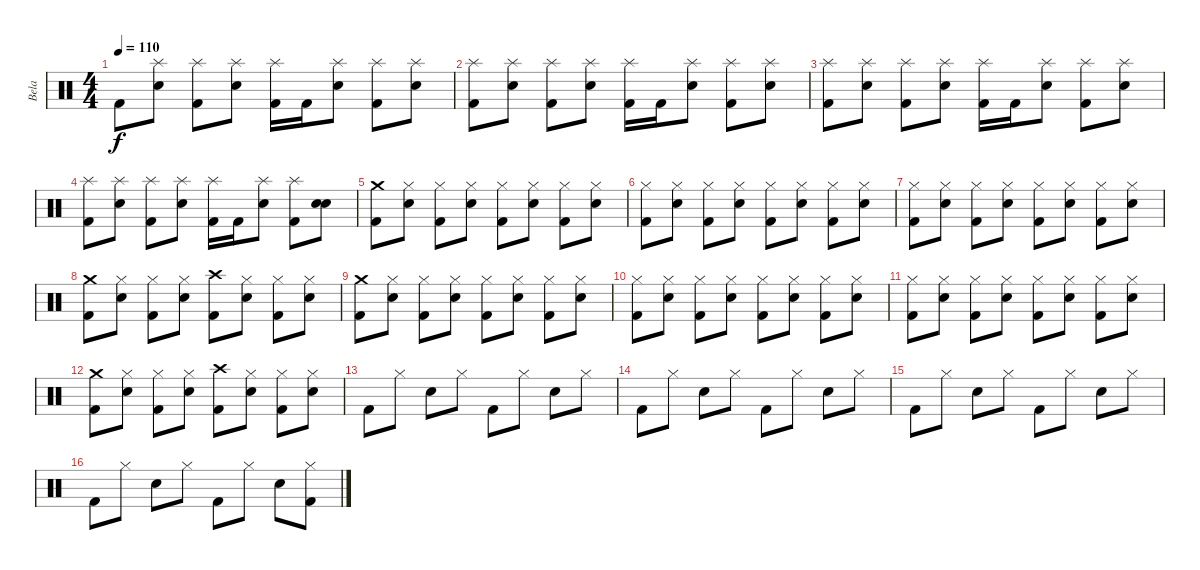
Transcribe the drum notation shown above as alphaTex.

\track ("Bela " "Bela ") {instrument percussion}
\staff {score}
\articulation defaults
\ts (4 4)
\tempo 110
\clef neutral
\ks c "Kick (hit) 2".8{dy f}
("Splash (hit)" "Electric Snare (hit)").8 ("Splash (hit)" "Kick (hit) 2").8 ("Splash (hit)" "Electric Snare (hit)").8 ("Splash (hit)" "Kick (hit) 2").16 "Kick (hit) 2".16 ("Splash (hit)" "Electric Snare (hit)").8 ("Splash (hit)" "Kick (hit) 2").8 ("Splash (hit)" "Electric Snare (hit)").8 |
("Splash (hit)" "Kick (hit) 2").8 ("Splash (hit)" "Electric Snare (hit)").8 ("Splash (hit)" "Kick (hit) 2").8 ("Splash (hit)" "Electric Snare (hit)").8 ("Splash (hit)" "Kick (hit) 2").16 "Kick (hit) 2".16 ("Splash (hit)" "Electric Snare (hit)").8 ("Splash (hit)" "Kick (hit) 2").8 ("Splash (hit)" "Electric Snare (hit)").8 |
("Splash (hit)" "Kick (hit) 2").8 ("Splash (hit)" "Electric Snare (hit)").8 ("Splash (hit)" "Kick (hit) 2").8 ("Splash (hit)" "Electric Snare (hit)").8 ("Splash (hit)" "Kick (hit) 2").16 "Kick (hit) 2".16 ("Splash (hit)" "Electric Snare (hit)").8 ("Splash (hit)" "Kick (hit) 2").8 ("Splash (hit)" "Electric Snare (hit)").8 |
("Splash (hit)" "Kick (hit) 2").8 ("Splash (hit)" "Electric Snare (hit)").8 ("Splash (hit)" "Kick (hit) 2").8 ("Splash (hit)" "Electric Snare (hit)").8 ("Splash (hit)" "Kick (hit) 2").16 "Kick (hit) 2".16 ("Splash (hit)" "Electric Snare (hit)").8 ("Splash (hit)" "Kick (hit) 2").8 ("Electric Snare (hit)" "Electric Snare (hit)").8 |
("Crash medium (hit)" "Kick (hit) 2").8 ("Hi-Hat (closed)" "Electric Snare (hit)").8 ("Hi-Hat (closed)" "Kick (hit) 2").8 ("Hi-Hat (closed)" "Electric Snare (hit)").8 ("Hi-Hat (closed)" "Kick (hit) 2").8 ("Hi-Hat (closed)" "Electric Snare (hit)").8 ("Hi-Hat (closed)" "Kick (hit) 2").8 ("Hi-Hat (closed)" "Electric Snare (hit)").8 |
("Hi-Hat (closed)" "Kick (hit) 2").8 ("Hi-Hat (closed)" "Electric Snare (hit)").8 ("Hi-Hat (closed)" "Kick (hit) 2").8 ("Hi-Hat (closed)" "Electric Snare (hit)").8 ("Hi-Hat (closed)" "Kick (hit) 2").8 ("Hi-Hat (closed)" "Electric Snare (hit)").8 ("Hi-Hat (closed)" "Kick (hit) 2").8 ("Hi-Hat (closed)" "Electric Snare (hit)").8 |
("Hi-Hat (closed)" "Kick (hit) 2").8 ("Hi-Hat (closed)" "Electric Snare (hit)").8 ("Hi-Hat (closed)" "Kick (hit) 2").8 ("Hi-Hat (closed)" "Electric Snare (hit)").8 ("Hi-Hat (closed)" "Kick (hit) 2").8 ("Hi-Hat (closed)" "Electric Snare (hit)").8 ("Hi-Hat (closed)" "Kick (hit) 2").8 ("Hi-Hat (closed)" "Electric Snare (hit)").8 |
("Crash medium (hit)" "Kick (hit) 2").8 ("Hi-Hat (closed)" "Electric Snare (hit)").8 ("Hi-Hat (closed)" "Kick (hit) 2").8 ("Hi-Hat (closed)" "Electric Snare (hit)").8 ("Crash high (hit)" "Kick (hit) 2").8 ("Hi-Hat (closed)" "Electric Snare (hit)").8 ("Hi-Hat (closed)" "Kick (hit) 2").8 ("Hi-Hat (closed)" "Electric Snare (hit)").8 |
("Crash medium (hit)" "Kick (hit) 2").8 ("Hi-Hat (closed)" "Electric Snare (hit)").8 ("Hi-Hat (closed)" "Kick (hit) 2").8 ("Hi-Hat (closed)" "Electric Snare (hit)").8 ("Hi-Hat (closed)" "Kick (hit) 2").8 ("Hi-Hat (closed)" "Electric Snare (hit)").8 ("Hi-Hat (closed)" "Kick (hit) 2").8 ("Hi-Hat (closed)" "Electric Snare (hit)").8 |
("Hi-Hat (closed)" "Kick (hit) 2").8 ("Hi-Hat (closed)" "Electric Snare (hit)").8 ("Hi-Hat (closed)" "Kick (hit) 2").8 ("Hi-Hat (closed)" "Electric Snare (hit)").8 ("Hi-Hat (closed)" "Kick (hit) 2").8 ("Hi-Hat (closed)" "Electric Snare (hit)").8 ("Hi-Hat (closed)" "Kick (hit) 2").8 ("Hi-Hat (closed)" "Electric Snare (hit)").8 |
("Hi-Hat (closed)" "Kick (hit) 2").8 ("Hi-Hat (closed)" "Electric Snare (hit)").8 ("Hi-Hat (closed)" "Kick (hit) 2").8 ("Hi-Hat (closed)" "Electric Snare (hit)").8 ("Hi-Hat (closed)" "Kick (hit) 2").8 ("Hi-Hat (closed)" "Electric Snare (hit)").8 ("Hi-Hat (closed)" "Kick (hit) 2").8 ("Hi-Hat (closed)" "Electric Snare (hit)").8 |
("Crash medium (hit)" "Kick (hit) 2").8 ("Hi-Hat (closed)" "Electric Snare (hit)").8 ("Hi-Hat (closed)" "Kick (hit) 2").8 ("Hi-Hat (closed)" "Electric Snare (hit)").8 ("Crash high (hit)" "Kick (hit) 2").8 ("Hi-Hat (closed)" "Electric Snare (hit)").8 ("Hi-Hat (closed)" "Kick (hit) 2").8 ("Hi-Hat (closed)" "Electric Snare (hit)").8 |
"Kick (hit) 2".8 "Hi-Hat (closed)".8 "Electric Snare (hit)".8 "Hi-Hat (closed)".8 "Kick (hit) 2".8 "Hi-Hat (closed)".8 "Electric Snare (hit)".8 "Hi-Hat (closed)".8 |
"Kick (hit) 2".8 "Hi-Hat (closed)".8 "Electric Snare (hit)".8 "Hi-Hat (closed)".8 "Kick (hit) 2".8 "Hi-Hat (closed)".8 "Electric Snare (hit)".8 "Hi-Hat (closed)".8 |
"Kick (hit) 2".8 "Hi-Hat (closed)".8 "Electric Snare (hit)".8 "Hi-Hat (closed)".8 "Kick (hit) 2".8 "Hi-Hat (closed)".8 "Electric Snare (hit)".8 "Hi-Hat (closed)".8 |
"Kick (hit) 2".8 "Hi-Hat (closed)".8 "Electric Snare (hit)".8 "Hi-Hat (closed)".8 "Kick (hit) 2".8 "Hi-Hat (closed)".8 "Electric Snare (hit)".8 ("Hi-Hat (closed)" "Kick (hit) 2").8
